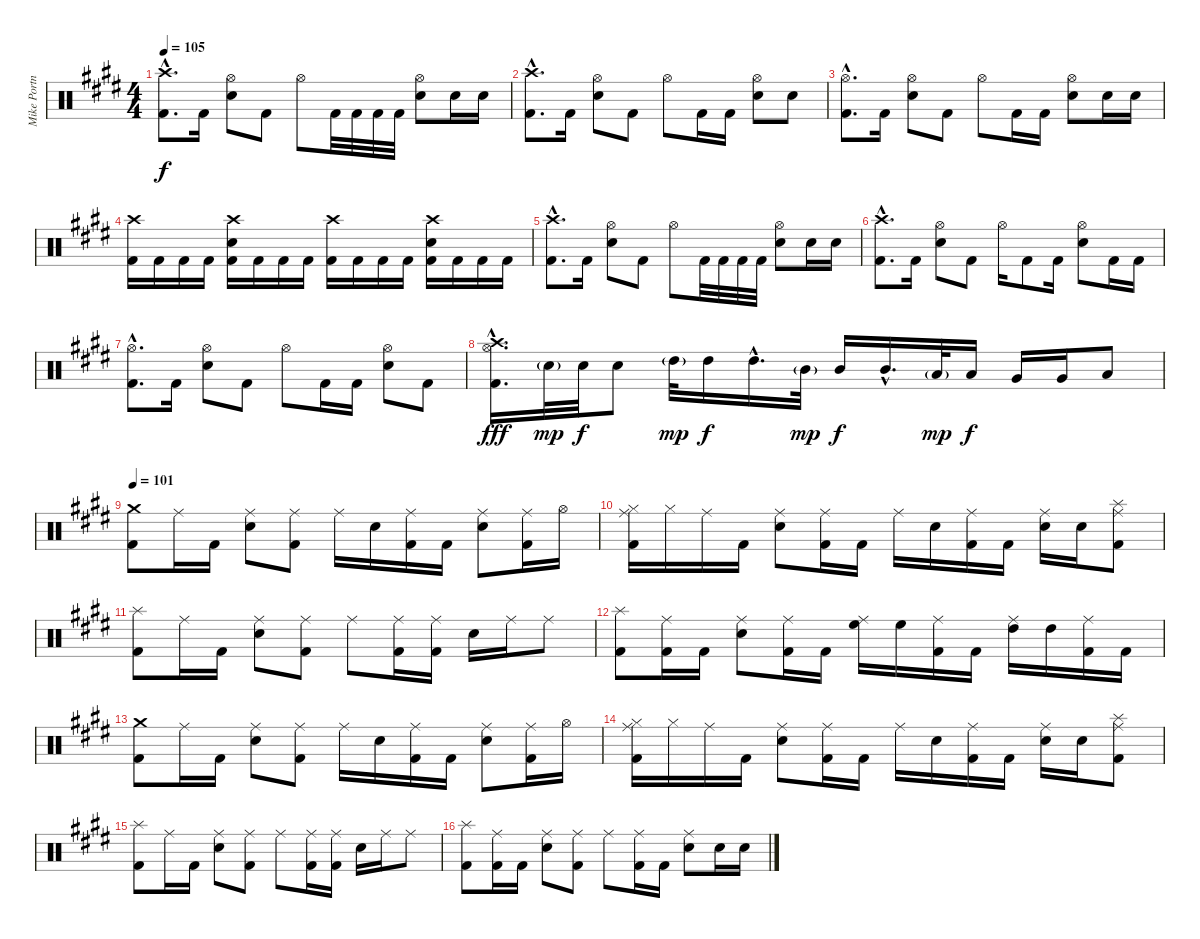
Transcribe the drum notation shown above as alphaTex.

\track ("Mike Portnoy" "Mike Portn") {instrument percussion}
\staff {score}
\articulation defaults
\ts (4 4)
\tempo 105
\clef neutral
\ks e
("Crash high (hit)"{hac} "Kick (hit) 2"{hac}).8{d dy f} "Kick (hit) 2".16 ("Hi-Hat (open)" "Snare (hit) 2").8 "Kick (hit) 2".8 "Hi-Hat (open)".8 "Kick (hit) 2".32 "Kick (hit) 2".32 "Kick (hit) 2".32 "Kick (hit) 2".32 ("Hi-Hat (open)" "Snare (hit) 2").8 "Snare (hit) 2".16 "Snare (hit) 2".16 |
("Crash high (hit)"{hac} "Kick (hit) 2"{hac}).8{d} "Kick (hit) 2".16 ("Hi-Hat (open)" "Snare (hit) 2").8 "Kick (hit) 2".8 "Hi-Hat (open)".8 "Kick (hit) 2".16 "Kick (hit) 2".16 ("Hi-Hat (open)" "Snare (hit) 2").8 "Snare (hit) 2".8 |
("Hi-Hat (open)"{hac} "Kick (hit) 2"{hac}).8{d} "Kick (hit) 2".16 ("Hi-Hat (open)" "Snare (hit) 2").8 "Kick (hit) 2".8 "Hi-Hat (open)".8 "Kick (hit) 2".16 "Kick (hit) 2".16 ("Hi-Hat (open)" "Snare (hit) 2").8 "Snare (hit) 2".16 "Snare (hit) 2".16 |
("Crash high (hit)" "Kick (hit) 2").16 "Kick (hit) 2".16 "Kick (hit) 2".16 "Kick (hit) 2".16 ("Crash high (hit)" "Snare (hit) 2" "Kick (hit) 2").16 "Kick (hit) 2".16 "Kick (hit) 2".16 "Kick (hit) 2".16 ("Crash high (hit)" "Kick (hit) 2").16 "Kick (hit) 2".16 "Kick (hit) 2".16 "Kick (hit) 2".16 ("Crash high (hit)" "Snare (hit) 2" "Kick (hit) 2").16 "Kick (hit) 2".16 "Kick (hit) 2".16 "Kick (hit) 2".16 |
("Crash high (hit)"{hac} "Kick (hit) 2"{hac}).8{d} "Kick (hit) 2".16 ("Hi-Hat (open)" "Snare (hit) 2").8 "Kick (hit) 2".8 "Hi-Hat (open)".8 "Kick (hit) 2".32 "Kick (hit) 2".32 "Kick (hit) 2".32 "Kick (hit) 2".32 ("Hi-Hat (open)" "Snare (hit) 2").8 "Snare (hit) 2".16 "Snare (hit) 2".16 |
("Crash high (hit)"{hac} "Kick (hit) 2"{hac}).8{d} "Kick (hit) 2".16 ("Hi-Hat (open)" "Snare (hit) 2").8 "Kick (hit) 2".8 "Hi-Hat (open)".16 "Kick (hit) 2".8 "Kick (hit) 2".16 ("Hi-Hat (open)" "Snare (hit) 2").8 "Kick (hit) 2".16 "Kick (hit) 2".16 |
("Hi-Hat (open)"{hac} "Kick (hit) 2"{hac}).8{d} "Kick (hit) 2".16 ("Hi-Hat (open)" "Snare (hit) 2").8 "Kick (hit) 2".8 "Hi-Hat (open)".8 "Kick (hit) 2".16 "Kick (hit) 2".16 ("Hi-Hat (open)" "Snare (hit) 2").8 "Kick (hit) 2".8 |
("Hi-Hat (open)"{hac} "Crash high (hit)"{hac} "Kick (hit) 2"{hac}).16{d dy fff} "Snare (hit) 2"{g}.32{dy mp} "Snare (hit) 2".32{dy f} "Snare (hit) 2".8 "High Tom (hit)"{g}.32{dy mp} "High Tom (hit)".16{dy f} "High Tom (hit)"{hac}.16{d} "Mid Tom (hit)"{g}.32{dy mp} "Mid Tom (hit)".16{dy f} "Mid Tom (hit)"{hac}.16{d} "Low Tom (hit)"{g}.32{dy mp} "Low Tom (hit)".16{dy f} "Very Low Tom (hit)".16 "Very Low Tom (hit)".16 "Low Floor Tom (hit)".8 |
\tempo 101
("Crash medium (hit)" "Kick (hit) 2").8 "Ride (middle)".16 "Kick (hit) 2".16 ("Ride (middle)" "Snare (hit) 2").8 ("Ride (middle)" "Kick (hit) 2").8 "Ride (middle)".16 "Snare (hit) 2".16 ("Ride (middle)" "Kick (hit) 2").16 "Kick (hit) 2".16 ("Ride (middle)" "Snare (hit) 2").8 ("Ride (middle)" "Kick (hit) 2").16 "Hi-Hat (open)".16 |
("Hi-Hat (closed)" "Ride (middle)" "Kick (hit) 2").16 "Hi-Hat (closed)".16 "Ride (middle)".16 "Kick (hit) 2".16 ("Ride (middle)" "Snare (hit) 2").8 ("Ride (middle)" "Kick (hit) 2").16 "Kick (hit) 2".16 "Ride (middle)".16 "Snare (hit) 2".16 ("Ride (middle)" "Kick (hit) 2").16 "Kick (hit) 2".16 ("Ride (middle)" "Snare (hit) 2").16 "Snare (hit) 2".16 ("Splash (hit)" "Ride (middle)" "Kick (hit) 2").8 |
("Splash (hit)" "Kick (hit) 2").8 "Ride (middle)".16 "Kick (hit) 2".16 ("Ride (middle)" "Snare (hit) 2").8 ("Ride (middle)" "Kick (hit) 2").8 "Ride (middle)".8 ("Ride (middle)" "Kick (hit) 2").16 ("Ride (middle)" "Kick (hit) 2").16 "Snare (hit) 2".16 "Ride (middle)".16 "Ride (middle)".8 |
("Splash (hit)" "Kick (hit) 2").8 ("Ride (middle)" "Kick (hit) 2").16 "Kick (hit) 2".16 ("Ride (middle)" "Snare (hit) 2").8 ("Ride (middle)" "Kick (hit) 2").16 "Kick (hit) 2".16 ("Ride (middle)" "High Floor Tom (hit)").16 "High Floor Tom (hit)".16 ("Ride (middle)" "Kick (hit) 2").16 "Kick (hit) 2".16 ("Ride (middle)" "High Tom (hit)").16 "High Tom (hit)".16 ("Ride (middle)" "Kick (hit) 2").16 "Kick (hit) 2".16 |
("Crash medium (hit)" "Kick (hit) 2").8 "Ride (middle)".16 "Kick (hit) 2".16 ("Ride (middle)" "Snare (hit) 2").8 ("Ride (middle)" "Kick (hit) 2").8 "Ride (middle)".16 "Snare (hit) 2".16 ("Ride (middle)" "Kick (hit) 2").16 "Kick (hit) 2".16 ("Ride (middle)" "Snare (hit) 2").8 ("Ride (middle)" "Kick (hit) 2").16 "Hi-Hat (open)".16 |
("Hi-Hat (closed)" "Ride (middle)" "Kick (hit) 2").16 "Hi-Hat (closed)".16 "Ride (middle)".16 "Kick (hit) 2".16 ("Ride (middle)" "Snare (hit) 2").8 ("Ride (middle)" "Kick (hit) 2").16 "Kick (hit) 2".16 "Ride (middle)".16 "Snare (hit) 2".16 ("Ride (middle)" "Kick (hit) 2").16 "Kick (hit) 2".16 ("Ride (middle)" "Snare (hit) 2").16 "Snare (hit) 2".16 ("Splash (hit)" "Ride (middle)" "Kick (hit) 2").8 |
("Splash (hit)" "Kick (hit) 2").8 "Ride (middle)".16 "Kick (hit) 2".16 ("Ride (middle)" "Snare (hit) 2").8 ("Ride (middle)" "Kick (hit) 2").8 "Ride (middle)".8 ("Ride (middle)" "Kick (hit) 2").16 ("Ride (middle)" "Kick (hit) 2").16 "Snare (hit) 2".16 "Ride (middle)".16 "Ride (middle)".8 |
("Splash (hit)" "Kick (hit) 2").8 ("Ride (middle)" "Kick (hit) 2").16 "Kick (hit) 2".16 ("Ride (middle)" "Snare (hit) 2").8 ("Ride (middle)" "Kick (hit) 2").8 "Ride (middle)".8 ("Ride (middle)" "Kick (hit) 2").16 "Kick (hit) 2".16 ("Ride (middle)" "Snare (hit) 2").8 "Snare (hit) 2".16 "Snare (hit) 2".16
